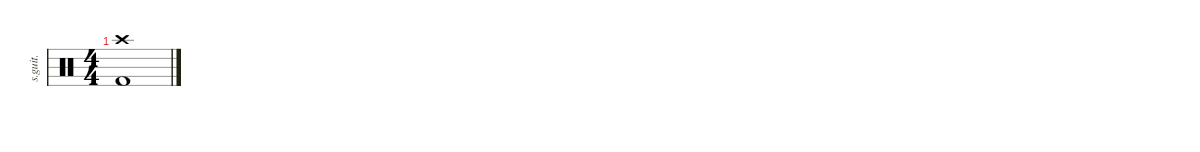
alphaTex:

\defaultSystemsLayout 4
\hideDynamics
\bracketExtendMode nobrackets
\track ("" "s.guit.") {instrument percussion}
\staff {score}
\articulation defaults
\ts (4 4)
\tempo (150 hide)
\clef neutral
\ks c
("Crash high (hit)" "Kick (hit) 2").1{dy f}
